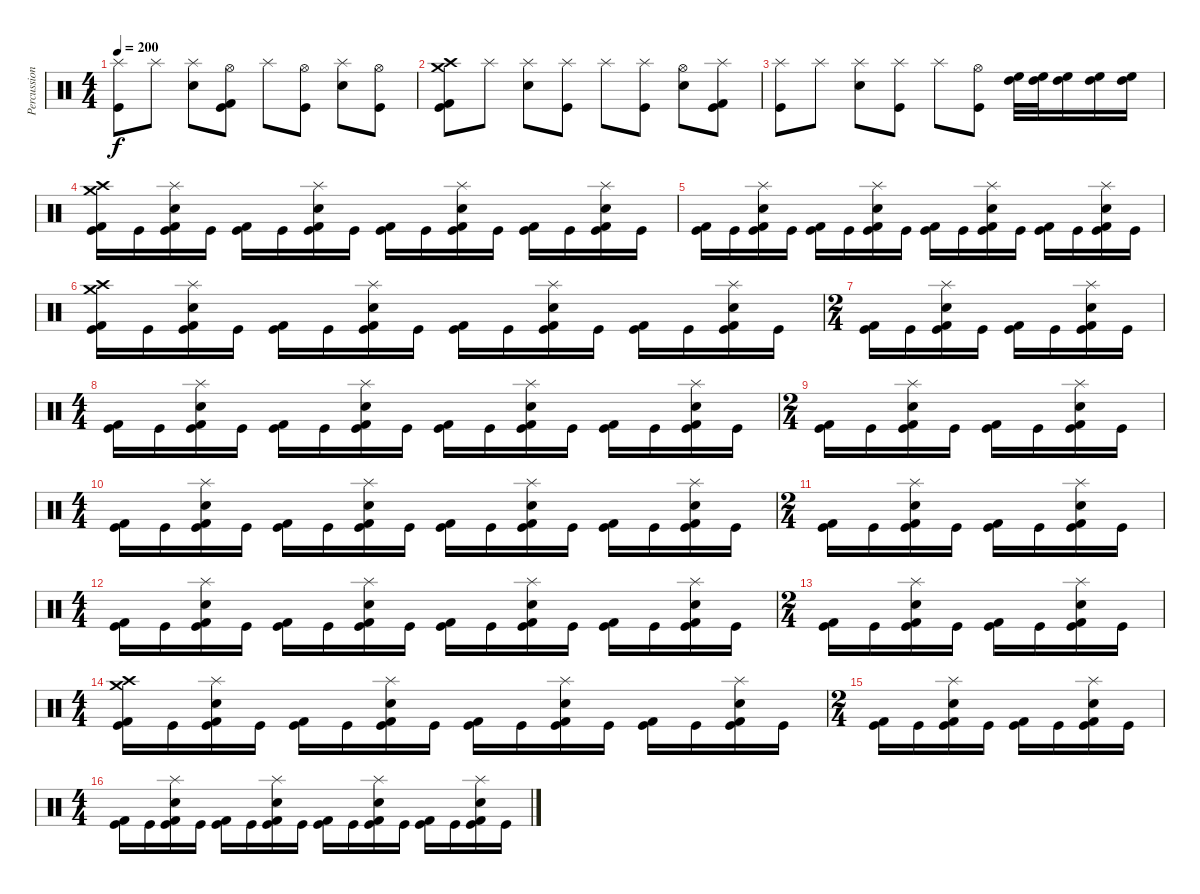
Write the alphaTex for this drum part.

\track ("Percussion" "Percussion") {instrument percussion}
\staff {score}
\articulation defaults
\ts (4 4)
\tempo 200
\clef neutral
\ks c
("Splash (hit)" "Kick (hit)").8{dy f} "Splash (hit)".8 ("Splash (hit)" "Snare (hit) 2").8 ("Hi-Hat (open)" "Kick (hit) 2" "Kick (hit)").8 "Splash (hit)".8 ("Hi-Hat (open)" "Kick (hit)").8 ("Splash (hit)" "Snare (hit) 2").8 ("Hi-Hat (open)" "Kick (hit)").8 |
("Crash high (hit)" "Crash medium (hit)" "Kick (hit) 2" "Kick (hit)").8 "Splash (hit)".8 ("Splash (hit)" "Snare (hit) 2").8 ("Splash (hit)" "Kick (hit)").8 "Splash (hit)".8 ("Splash (hit)" "Kick (hit)").8 ("Hi-Hat (open)" "Snare (hit) 2").8 ("Splash (hit)" "Kick (hit) 2" "Kick (hit)").8 |
("Splash (hit)" "Kick (hit)").8 "Splash (hit)".8 ("Splash (hit)" "Snare (hit) 2").8 ("Splash (hit)" "Kick (hit)").8 "Splash (hit)".8 ("Hi-Hat (open)" "Kick (hit)").8 ("High Floor Tom (hit)" "High Tom (hit)").32 ("High Floor Tom (hit)" "High Tom (hit)").32 ("High Floor Tom (hit)" "High Tom (hit)").16 ("High Floor Tom (hit)" "High Tom (hit)").16 ("High Floor Tom (hit)" "High Tom (hit)").16 |
("Crash high (hit)" "Crash medium (hit)" "Kick (hit) 2" "Kick (hit)").16 "Kick (hit)".16 ("Splash (hit)" "Snare (hit) 2" "Kick (hit) 2" "Kick (hit)").16 "Kick (hit)".16 ("Kick (hit) 2" "Kick (hit)").16 "Kick (hit)".16 ("Splash (hit)" "Snare (hit) 2" "Kick (hit) 2" "Kick (hit)").16 "Kick (hit)".16 ("Kick (hit) 2" "Kick (hit)").16 "Kick (hit)".16 ("Splash (hit)" "Snare (hit) 2" "Kick (hit) 2" "Kick (hit)").16 "Kick (hit)".16 ("Kick (hit) 2" "Kick (hit)").16 "Kick (hit)".16 ("Splash (hit)" "Snare (hit) 2" "Kick (hit) 2" "Kick (hit)").16 "Kick (hit)".16 |
("Kick (hit) 2" "Kick (hit)").16 "Kick (hit)".16 ("Splash (hit)" "Snare (hit) 2" "Kick (hit) 2" "Kick (hit)").16 "Kick (hit)".16 ("Kick (hit) 2" "Kick (hit)").16 "Kick (hit)".16 ("Splash (hit)" "Snare (hit) 2" "Kick (hit) 2" "Kick (hit)").16 "Kick (hit)".16 ("Kick (hit) 2" "Kick (hit)").16 "Kick (hit)".16 ("Splash (hit)" "Snare (hit) 2" "Kick (hit) 2" "Kick (hit)").16 "Kick (hit)".16 ("Kick (hit) 2" "Kick (hit)").16 "Kick (hit)".16 ("Splash (hit)" "Snare (hit) 2" "Kick (hit) 2" "Kick (hit)").16 "Kick (hit)".16 |
("Crash high (hit)" "Crash medium (hit)" "Kick (hit) 2" "Kick (hit)").16 "Kick (hit)".16 ("Splash (hit)" "Snare (hit) 2" "Kick (hit) 2" "Kick (hit)").16 "Kick (hit)".16 ("Kick (hit) 2" "Kick (hit)").16 "Kick (hit)".16 ("Splash (hit)" "Snare (hit) 2" "Kick (hit) 2" "Kick (hit)").16 "Kick (hit)".16 ("Kick (hit) 2" "Kick (hit)").16 "Kick (hit)".16 ("Splash (hit)" "Snare (hit) 2" "Kick (hit) 2" "Kick (hit)").16 "Kick (hit)".16 ("Kick (hit) 2" "Kick (hit)").16 "Kick (hit)".16 ("Splash (hit)" "Snare (hit) 2" "Kick (hit) 2" "Kick (hit)").16 "Kick (hit)".16 |
\ts (2 4)
("Kick (hit) 2" "Kick (hit)").16 "Kick (hit)".16 ("Splash (hit)" "Snare (hit) 2" "Kick (hit) 2" "Kick (hit)").16 "Kick (hit)".16 ("Kick (hit) 2" "Kick (hit)").16 "Kick (hit)".16 ("Splash (hit)" "Snare (hit) 2" "Kick (hit) 2" "Kick (hit)").16 "Kick (hit)".16 |
\ts (4 4)
("Kick (hit) 2" "Kick (hit)").16 "Kick (hit)".16 ("Splash (hit)" "Snare (hit) 2" "Kick (hit) 2" "Kick (hit)").16 "Kick (hit)".16 ("Kick (hit) 2" "Kick (hit)").16 "Kick (hit)".16 ("Splash (hit)" "Snare (hit) 2" "Kick (hit) 2" "Kick (hit)").16 "Kick (hit)".16 ("Kick (hit) 2" "Kick (hit)").16 "Kick (hit)".16 ("Splash (hit)" "Snare (hit) 2" "Kick (hit) 2" "Kick (hit)").16 "Kick (hit)".16 ("Kick (hit) 2" "Kick (hit)").16 "Kick (hit)".16 ("Splash (hit)" "Snare (hit) 2" "Kick (hit) 2" "Kick (hit)").16 "Kick (hit)".16 |
\ts (2 4)
("Kick (hit) 2" "Kick (hit)").16 "Kick (hit)".16 ("Splash (hit)" "Snare (hit) 2" "Kick (hit) 2" "Kick (hit)").16 "Kick (hit)".16 ("Kick (hit) 2" "Kick (hit)").16 "Kick (hit)".16 ("Splash (hit)" "Snare (hit) 2" "Kick (hit) 2" "Kick (hit)").16 "Kick (hit)".16 |
\ts (4 4)
("Kick (hit) 2" "Kick (hit)").16 "Kick (hit)".16 ("Splash (hit)" "Snare (hit) 2" "Kick (hit) 2" "Kick (hit)").16 "Kick (hit)".16 ("Kick (hit) 2" "Kick (hit)").16 "Kick (hit)".16 ("Splash (hit)" "Snare (hit) 2" "Kick (hit) 2" "Kick (hit)").16 "Kick (hit)".16 ("Kick (hit) 2" "Kick (hit)").16 "Kick (hit)".16 ("Splash (hit)" "Snare (hit) 2" "Kick (hit) 2" "Kick (hit)").16 "Kick (hit)".16 ("Kick (hit) 2" "Kick (hit)").16 "Kick (hit)".16 ("Splash (hit)" "Snare (hit) 2" "Kick (hit) 2" "Kick (hit)").16 "Kick (hit)".16 |
\ts (2 4)
("Kick (hit) 2" "Kick (hit)").16 "Kick (hit)".16 ("Splash (hit)" "Snare (hit) 2" "Kick (hit) 2" "Kick (hit)").16 "Kick (hit)".16 ("Kick (hit) 2" "Kick (hit)").16 "Kick (hit)".16 ("Splash (hit)" "Snare (hit) 2" "Kick (hit) 2" "Kick (hit)").16 "Kick (hit)".16 |
\ts (4 4)
("Kick (hit) 2" "Kick (hit)").16 "Kick (hit)".16 ("Splash (hit)" "Snare (hit) 2" "Kick (hit) 2" "Kick (hit)").16 "Kick (hit)".16 ("Kick (hit) 2" "Kick (hit)").16 "Kick (hit)".16 ("Splash (hit)" "Snare (hit) 2" "Kick (hit) 2" "Kick (hit)").16 "Kick (hit)".16 ("Kick (hit) 2" "Kick (hit)").16 "Kick (hit)".16 ("Splash (hit)" "Snare (hit) 2" "Kick (hit) 2" "Kick (hit)").16 "Kick (hit)".16 ("Kick (hit) 2" "Kick (hit)").16 "Kick (hit)".16 ("Splash (hit)" "Snare (hit) 2" "Kick (hit) 2" "Kick (hit)").16 "Kick (hit)".16 |
\ts (2 4)
("Kick (hit) 2" "Kick (hit)").16 "Kick (hit)".16 ("Splash (hit)" "Snare (hit) 2" "Kick (hit) 2" "Kick (hit)").16 "Kick (hit)".16 ("Kick (hit) 2" "Kick (hit)").16 "Kick (hit)".16 ("Splash (hit)" "Snare (hit) 2" "Kick (hit) 2" "Kick (hit)").16 "Kick (hit)".16 |
\ts (4 4)
("Crash high (hit)" "Crash medium (hit)" "Kick (hit) 2" "Kick (hit)").16 "Kick (hit)".16 ("Splash (hit)" "Snare (hit) 2" "Kick (hit) 2" "Kick (hit)").16 "Kick (hit)".16 ("Kick (hit) 2" "Kick (hit)").16 "Kick (hit)".16 ("Splash (hit)" "Snare (hit) 2" "Kick (hit) 2" "Kick (hit)").16 "Kick (hit)".16 ("Kick (hit) 2" "Kick (hit)").16 "Kick (hit)".16 ("Splash (hit)" "Snare (hit) 2" "Kick (hit) 2" "Kick (hit)").16 "Kick (hit)".16 ("Kick (hit) 2" "Kick (hit)").16 "Kick (hit)".16 ("Splash (hit)" "Snare (hit) 2" "Kick (hit) 2" "Kick (hit)").16 "Kick (hit)".16 |
\ts (2 4)
("Kick (hit) 2" "Kick (hit)").16 "Kick (hit)".16 ("Splash (hit)" "Snare (hit) 2" "Kick (hit) 2" "Kick (hit)").16 "Kick (hit)".16 ("Kick (hit) 2" "Kick (hit)").16 "Kick (hit)".16 ("Splash (hit)" "Snare (hit) 2" "Kick (hit) 2" "Kick (hit)").16 "Kick (hit)".16 |
\ts (4 4)
("Kick (hit) 2" "Kick (hit)").16 "Kick (hit)".16 ("Splash (hit)" "Snare (hit) 2" "Kick (hit) 2" "Kick (hit)").16 "Kick (hit)".16 ("Kick (hit) 2" "Kick (hit)").16 "Kick (hit)".16 ("Splash (hit)" "Snare (hit) 2" "Kick (hit) 2" "Kick (hit)").16 "Kick (hit)".16 ("Kick (hit) 2" "Kick (hit)").16 "Kick (hit)".16 ("Splash (hit)" "Snare (hit) 2" "Kick (hit) 2" "Kick (hit)").16 "Kick (hit)".16 ("Kick (hit) 2" "Kick (hit)").16 "Kick (hit)".16 ("Splash (hit)" "Snare (hit) 2" "Kick (hit) 2" "Kick (hit)").16 "Kick (hit)".16
